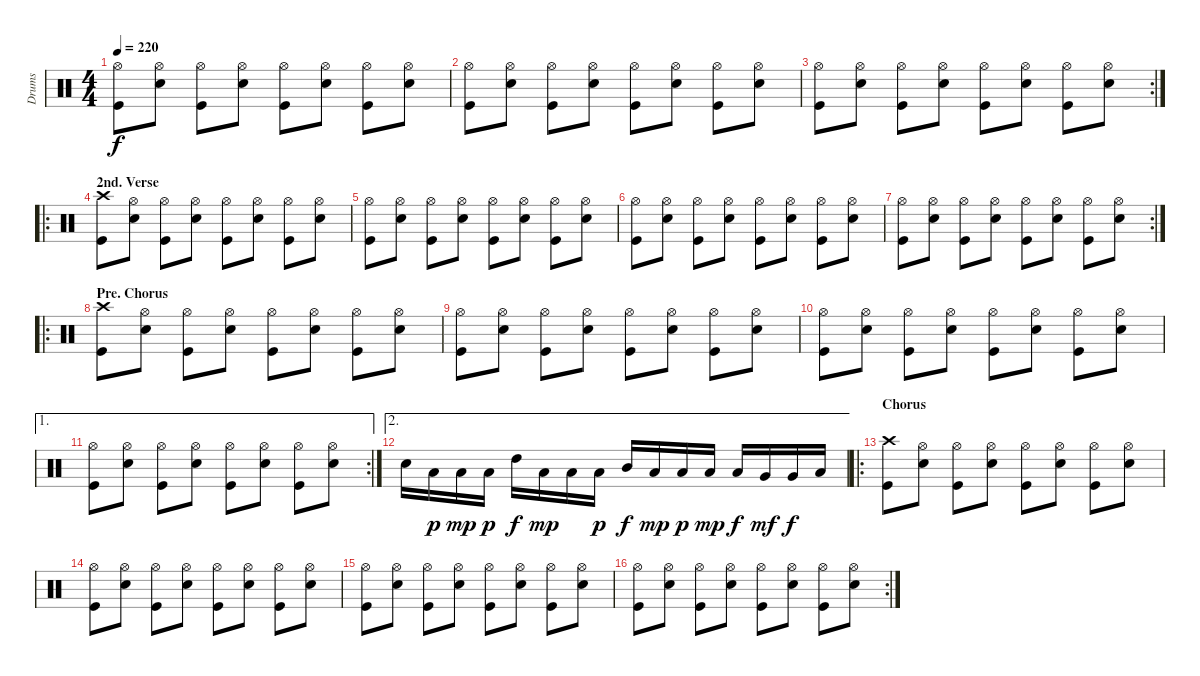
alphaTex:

\track ("Drums" "Drums") {instrument percussion}
\staff {score}
\articulation defaults
\ts (4 4)
\tempo 220
\clef neutral
\ks c
("Hi-Hat (open)" "Kick (hit)").8{dy f} ("Hi-Hat (open)" "Snare (hit) 2").8 ("Hi-Hat (open)" "Kick (hit)").8 ("Hi-Hat (open)" "Snare (hit) 2").8 ("Hi-Hat (open)" "Kick (hit)").8 ("Hi-Hat (open)" "Snare (hit) 2").8 ("Hi-Hat (open)" "Kick (hit)").8 ("Hi-Hat (open)" "Snare (hit) 2").8 |
("Hi-Hat (open)" "Kick (hit)").8 ("Hi-Hat (open)" "Snare (hit) 2").8 ("Hi-Hat (open)" "Kick (hit)").8 ("Hi-Hat (open)" "Snare (hit) 2").8 ("Hi-Hat (open)" "Kick (hit)").8 ("Hi-Hat (open)" "Snare (hit) 2").8 ("Hi-Hat (open)" "Kick (hit)").8 ("Hi-Hat (open)" "Snare (hit) 2").8 |
\rc 2
("Hi-Hat (open)" "Kick (hit)").8 ("Hi-Hat (open)" "Snare (hit) 2").8 ("Hi-Hat (open)" "Kick (hit)").8 ("Hi-Hat (open)" "Snare (hit) 2").8 ("Hi-Hat (open)" "Kick (hit)").8 ("Hi-Hat (open)" "Snare (hit) 2").8 ("Hi-Hat (open)" "Kick (hit)").8 ("Hi-Hat (open)" "Snare (hit) 2").8 |
\ro
\section ("" "2nd. Verse")
("Crash high (hit)" "Kick (hit)").8 ("Hi-Hat (open)" "Snare (hit) 2").8 ("Hi-Hat (open)" "Kick (hit)").8 ("Hi-Hat (open)" "Snare (hit) 2").8 ("Hi-Hat (open)" "Kick (hit)").8 ("Hi-Hat (open)" "Snare (hit) 2").8 ("Hi-Hat (open)" "Kick (hit)").8 ("Hi-Hat (open)" "Snare (hit) 2").8 |
("Hi-Hat (open)" "Kick (hit)").8 ("Hi-Hat (open)" "Snare (hit) 2").8 ("Hi-Hat (open)" "Kick (hit)").8 ("Hi-Hat (open)" "Snare (hit) 2").8 ("Hi-Hat (open)" "Kick (hit)").8 ("Hi-Hat (open)" "Snare (hit) 2").8 ("Hi-Hat (open)" "Kick (hit)").8 ("Hi-Hat (open)" "Snare (hit) 2").8 |
("Hi-Hat (open)" "Kick (hit)").8 ("Hi-Hat (open)" "Snare (hit) 2").8 ("Hi-Hat (open)" "Kick (hit)").8 ("Hi-Hat (open)" "Snare (hit) 2").8 ("Hi-Hat (open)" "Kick (hit)").8 ("Hi-Hat (open)" "Snare (hit) 2").8 ("Hi-Hat (open)" "Kick (hit)").8 ("Hi-Hat (open)" "Snare (hit) 2").8 |
\rc 2
("Hi-Hat (open)" "Kick (hit)").8 ("Hi-Hat (open)" "Snare (hit) 2").8 ("Hi-Hat (open)" "Kick (hit)").8 ("Hi-Hat (open)" "Snare (hit) 2").8 ("Hi-Hat (open)" "Kick (hit)").8 ("Hi-Hat (open)" "Snare (hit) 2").8 ("Hi-Hat (open)" "Kick (hit)").8 ("Hi-Hat (open)" "Snare (hit) 2").8 |
\ro
\section ("" "Pre. Chorus")
("Crash high (hit)" "Kick (hit)").8 ("Hi-Hat (open)" "Snare (hit) 2").8 ("Hi-Hat (open)" "Kick (hit)").8 ("Hi-Hat (open)" "Snare (hit) 2").8 ("Hi-Hat (open)" "Kick (hit)").8 ("Hi-Hat (open)" "Snare (hit) 2").8 ("Hi-Hat (open)" "Kick (hit)").8 ("Hi-Hat (open)" "Snare (hit) 2").8 |
("Hi-Hat (open)" "Kick (hit)").8 ("Hi-Hat (open)" "Snare (hit) 2").8 ("Hi-Hat (open)" "Kick (hit)").8 ("Hi-Hat (open)" "Snare (hit) 2").8 ("Hi-Hat (open)" "Kick (hit)").8 ("Hi-Hat (open)" "Snare (hit) 2").8 ("Hi-Hat (open)" "Kick (hit)").8 ("Hi-Hat (open)" "Snare (hit) 2").8 |
("Hi-Hat (open)" "Kick (hit)").8 ("Hi-Hat (open)" "Snare (hit) 2").8 ("Hi-Hat (open)" "Kick (hit)").8 ("Hi-Hat (open)" "Snare (hit) 2").8 ("Hi-Hat (open)" "Kick (hit)").8 ("Hi-Hat (open)" "Snare (hit) 2").8 ("Hi-Hat (open)" "Kick (hit)").8 ("Hi-Hat (open)" "Snare (hit) 2").8 |
\ae 1
\rc 2
("Hi-Hat (open)" "Kick (hit)").8 ("Hi-Hat (open)" "Snare (hit) 2").8 ("Hi-Hat (open)" "Kick (hit)").8 ("Hi-Hat (open)" "Snare (hit) 2").8 ("Hi-Hat (open)" "Kick (hit)").8 ("Hi-Hat (open)" "Snare (hit) 2").8 ("Hi-Hat (open)" "Kick (hit)").8 ("Hi-Hat (open)" "Snare (hit) 2").8 |
\ae 2 "Snare (hit) 2".16 "Low Tom (hit)".16{dy p} "Low Tom (hit)".16{dy mp} "Low Tom (hit)".16{dy p} "High Tom (hit)".16{dy f} "Low Tom (hit)".16{dy mp} "Low Tom (hit)".16 "Low Tom (hit)".16{dy p} "Mid Tom (hit)".16{dy f} "Low Tom (hit)".16{dy mp} "Low Tom (hit)".16{dy p} "Low Tom (hit)".16{dy mp} "Low Tom (hit)".16{dy f} "Very Low Tom (hit)".16{dy mf} "Very Low Tom (hit)".16{dy f} "Low Floor Tom (hit)".16
|
\ro
\section ("" "Chorus")
("Crash high (hit)" "Kick (hit)").8 ("Hi-Hat (open)" "Snare (hit) 2").8 ("Hi-Hat (open)" "Kick (hit)").8 ("Hi-Hat (open)" "Snare (hit) 2").8 ("Hi-Hat (open)" "Kick (hit)").8 ("Hi-Hat (open)" "Snare (hit) 2").8 ("Hi-Hat (open)" "Kick (hit)").8 ("Hi-Hat (open)" "Snare (hit) 2").8 |
("Hi-Hat (open)" "Kick (hit)").8 ("Hi-Hat (open)" "Snare (hit) 2").8 ("Hi-Hat (open)" "Kick (hit)").8 ("Hi-Hat (open)" "Snare (hit) 2").8 ("Hi-Hat (open)" "Kick (hit)").8 ("Hi-Hat (open)" "Snare (hit) 2").8 ("Hi-Hat (open)" "Kick (hit)").8 ("Hi-Hat (open)" "Snare (hit) 2").8 |
("Hi-Hat (open)" "Kick (hit)").8 ("Hi-Hat (open)" "Snare (hit) 2").8 ("Hi-Hat (open)" "Kick (hit)").8 ("Hi-Hat (open)" "Snare (hit) 2").8 ("Hi-Hat (open)" "Kick (hit)").8 ("Hi-Hat (open)" "Snare (hit) 2").8 ("Hi-Hat (open)" "Kick (hit)").8 ("Hi-Hat (open)" "Snare (hit) 2").8 |
\rc 2
("Hi-Hat (open)" "Kick (hit)").8 ("Hi-Hat (open)" "Snare (hit) 2").8 ("Hi-Hat (open)" "Kick (hit)").8 ("Hi-Hat (open)" "Snare (hit) 2").8 ("Hi-Hat (open)" "Kick (hit)").8 ("Hi-Hat (open)" "Snare (hit) 2").8 ("Hi-Hat (open)" "Kick (hit)").8 ("Hi-Hat (open)" "Snare (hit) 2").8
